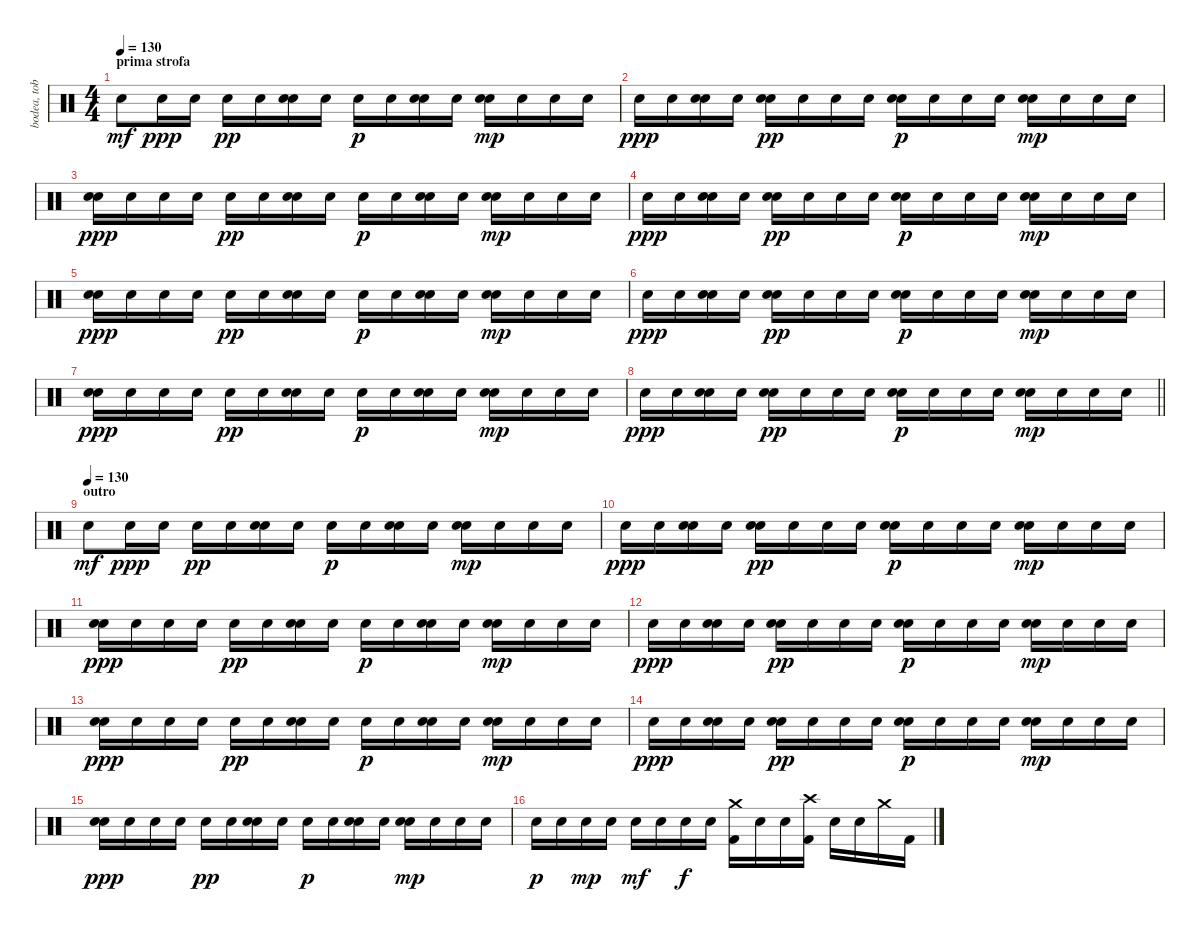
\track ("bodea, tobe" "bodea, tob") {instrument percussion}
\staff {score}
\articulation defaults
\ts (4 4)
\section ("" "prima strofa")
\tempo 130
\clef neutral
\ks c "Electric Snare (hit)".8{dy mf} "Electric Snare (hit)".16{dy ppp} "Electric Snare (hit)".16 "Electric Snare (hit)".16{dy pp} "Electric Snare (hit)".16
("Electric Snare (hit)" "Electric Snare (hit)").16 "Electric Snare (hit)".16 "Electric Snare (hit)".16{dy p} "Electric Snare (hit)".16 ("Electric Snare (hit)" "Electric Snare (hit)").16 "Electric Snare (hit)".16 ("Electric Snare (hit)" "Electric Snare (hit)").16{dy mp} "Electric Snare (hit)".16 "Electric Snare (hit)".16 "Electric Snare (hit)".16 |
"Electric Snare (hit)".16{dy ppp} "Electric Snare (hit)".16 ("Electric Snare (hit)" "Electric Snare (hit)").16 "Electric Snare (hit)".16 ("Electric Snare (hit)" "Electric Snare (hit)").16{dy pp} "Electric Snare (hit)".16 "Electric Snare (hit)".16 "Electric Snare (hit)".16 ("Electric Snare (hit)" "Electric Snare (hit)").16{dy p} "Electric Snare (hit)".16 "Electric Snare (hit)".16 "Snare (hit)".16 ("Electric Snare (hit)" "Electric Snare (hit)").16{dy mp} "Electric Snare (hit)".16 "Electric Snare (hit)".16 "Electric Snare (hit)".16 |
("Electric Snare (hit)" "Electric Snare (hit)").16{dy ppp} "Electric Snare (hit)".16 "Electric Snare (hit)".16 "Electric Snare (hit)".16 "Electric Snare (hit)".16{dy pp} "Electric Snare (hit)".16 ("Electric Snare (hit)" "Electric Snare (hit)").16 "Electric Snare (hit)".16 "Electric Snare (hit)".16{dy p} "Electric Snare (hit)".16 ("Electric Snare (hit)" "Electric Snare (hit)").16 "Electric Snare (hit)".16 ("Electric Snare (hit)" "Electric Snare (hit)").16{dy mp} "Electric Snare (hit)".16 "Electric Snare (hit)".16 "Electric Snare (hit)".16 |
"Electric Snare (hit)".16{dy ppp} "Electric Snare (hit)".16 ("Electric Snare (hit)" "Electric Snare (hit)").16 "Electric Snare (hit)".16 ("Electric Snare (hit)" "Electric Snare (hit)").16{dy pp} "Electric Snare (hit)".16 "Electric Snare (hit)".16 "Electric Snare (hit)".16 ("Electric Snare (hit)" "Electric Snare (hit)").16{dy p} "Electric Snare (hit)".16 "Electric Snare (hit)".16 "Snare (hit)".16 ("Electric Snare (hit)" "Electric Snare (hit)").16{dy mp} "Electric Snare (hit)".16 "Electric Snare (hit)".16 "Electric Snare (hit)".16 |
("Electric Snare (hit)" "Electric Snare (hit)").16{dy ppp} "Electric Snare (hit)".16 "Electric Snare (hit)".16 "Electric Snare (hit)".16 "Electric Snare (hit)".16{dy pp} "Electric Snare (hit)".16 ("Electric Snare (hit)" "Electric Snare (hit)").16 "Electric Snare (hit)".16 "Electric Snare (hit)".16{dy p} "Electric Snare (hit)".16 ("Electric Snare (hit)" "Electric Snare (hit)").16 "Electric Snare (hit)".16 ("Electric Snare (hit)" "Electric Snare (hit)").16{dy mp} "Electric Snare (hit)".16 "Electric Snare (hit)".16 "Electric Snare (hit)".16 |
"Electric Snare (hit)".16{dy ppp} "Electric Snare (hit)".16 ("Electric Snare (hit)" "Electric Snare (hit)").16 "Electric Snare (hit)".16 ("Electric Snare (hit)" "Electric Snare (hit)").16{dy pp} "Electric Snare (hit)".16 "Electric Snare (hit)".16 "Electric Snare (hit)".16 ("Electric Snare (hit)" "Electric Snare (hit)").16{dy p} "Electric Snare (hit)".16 "Electric Snare (hit)".16 "Snare (hit)".16 ("Electric Snare (hit)" "Electric Snare (hit)").16{dy mp} "Electric Snare (hit)".16 "Electric Snare (hit)".16 "Electric Snare (hit)".16 |
("Electric Snare (hit)" "Electric Snare (hit)").16{dy ppp} "Electric Snare (hit)".16 "Electric Snare (hit)".16 "Electric Snare (hit)".16 "Electric Snare (hit)".16{dy pp} "Electric Snare (hit)".16 ("Electric Snare (hit)" "Electric Snare (hit)").16 "Electric Snare (hit)".16 "Electric Snare (hit)".16{dy p} "Electric Snare (hit)".16 ("Electric Snare (hit)" "Electric Snare (hit)").16 "Electric Snare (hit)".16 ("Electric Snare (hit)" "Electric Snare (hit)").16{dy mp} "Electric Snare (hit)".16 "Electric Snare (hit)".16 "Electric Snare (hit)".16 |
\barLineRight lightlight "Electric Snare (hit)".16{dy ppp} "Electric Snare (hit)".16
("Electric Snare (hit)" "Electric Snare (hit)").16 "Electric Snare (hit)".16 ("Electric Snare (hit)" "Electric Snare (hit)").16{dy pp} "Electric Snare (hit)".16 "Electric Snare (hit)".16 "Electric Snare (hit)".16 ("Electric Snare (hit)" "Electric Snare (hit)").16{dy p} "Electric Snare (hit)".16 "Electric Snare (hit)".16 "Snare (hit)".16 ("Electric Snare (hit)" "Electric Snare (hit)").16{dy mp} "Electric Snare (hit)".16 "Electric Snare (hit)".16 "Electric Snare (hit)".16 |
\section ("" "outro")
\tempo (130)
"Electric Snare (hit)".8{dy mf} "Electric Snare (hit)".16{dy ppp} "Electric Snare (hit)".16 "Electric Snare (hit)".16{dy pp} "Electric Snare (hit)".16 ("Electric Snare (hit)" "Electric Snare (hit)").16 "Electric Snare (hit)".16 "Electric Snare (hit)".16{dy p} "Electric Snare (hit)".16 ("Electric Snare (hit)" "Electric Snare (hit)").16 "Electric Snare (hit)".16 ("Electric Snare (hit)" "Electric Snare (hit)").16{dy mp} "Electric Snare (hit)".16 "Electric Snare (hit)".16 "Electric Snare (hit)".16 |
"Electric Snare (hit)".16{dy ppp} "Electric Snare (hit)".16 ("Electric Snare (hit)" "Electric Snare (hit)").16 "Electric Snare (hit)".16 ("Electric Snare (hit)" "Electric Snare (hit)").16{dy pp} "Electric Snare (hit)".16 "Electric Snare (hit)".16 "Electric Snare (hit)".16 ("Electric Snare (hit)" "Electric Snare (hit)").16{dy p} "Electric Snare (hit)".16 "Electric Snare (hit)".16 "Snare (hit)".16 ("Electric Snare (hit)" "Electric Snare (hit)").16{dy mp} "Electric Snare (hit)".16 "Electric Snare (hit)".16 "Electric Snare (hit)".16 |
("Electric Snare (hit)" "Electric Snare (hit)").16{dy ppp} "Electric Snare (hit)".16 "Electric Snare (hit)".16 "Electric Snare (hit)".16 "Electric Snare (hit)".16{dy pp} "Electric Snare (hit)".16 ("Electric Snare (hit)" "Electric Snare (hit)").16 "Electric Snare (hit)".16 "Electric Snare (hit)".16{dy p} "Electric Snare (hit)".16 ("Electric Snare (hit)" "Electric Snare (hit)").16 "Electric Snare (hit)".16 ("Electric Snare (hit)" "Electric Snare (hit)").16{dy mp} "Electric Snare (hit)".16 "Electric Snare (hit)".16 "Electric Snare (hit)".16 |
"Electric Snare (hit)".16{dy ppp} "Electric Snare (hit)".16 ("Electric Snare (hit)" "Electric Snare (hit)").16 "Electric Snare (hit)".16 ("Electric Snare (hit)" "Electric Snare (hit)").16{dy pp} "Electric Snare (hit)".16 "Electric Snare (hit)".16 "Electric Snare (hit)".16 ("Electric Snare (hit)" "Electric Snare (hit)").16{dy p} "Electric Snare (hit)".16 "Electric Snare (hit)".16 "Snare (hit)".16 ("Electric Snare (hit)" "Electric Snare (hit)").16{dy mp} "Electric Snare (hit)".16 "Electric Snare (hit)".16 "Electric Snare (hit)".16 |
("Electric Snare (hit)" "Electric Snare (hit)").16{dy ppp} "Electric Snare (hit)".16 "Electric Snare (hit)".16 "Electric Snare (hit)".16 "Electric Snare (hit)".16{dy pp} "Electric Snare (hit)".16 ("Electric Snare (hit)" "Electric Snare (hit)").16 "Electric Snare (hit)".16 "Electric Snare (hit)".16{dy p} "Electric Snare (hit)".16 ("Electric Snare (hit)" "Electric Snare (hit)").16 "Electric Snare (hit)".16 ("Electric Snare (hit)" "Electric Snare (hit)").16{dy mp} "Electric Snare (hit)".16 "Electric Snare (hit)".16 "Electric Snare (hit)".16 |
"Electric Snare (hit)".16{dy ppp} "Electric Snare (hit)".16 ("Electric Snare (hit)" "Electric Snare (hit)").16 "Electric Snare (hit)".16 ("Electric Snare (hit)" "Electric Snare (hit)").16{dy pp} "Electric Snare (hit)".16 "Electric Snare (hit)".16 "Electric Snare (hit)".16 ("Electric Snare (hit)" "Electric Snare (hit)").16{dy p} "Electric Snare (hit)".16 "Electric Snare (hit)".16 "Snare (hit)".16 ("Electric Snare (hit)" "Electric Snare (hit)").16{dy mp} "Electric Snare (hit)".16 "Electric Snare (hit)".16 "Electric Snare (hit)".16 |
("Electric Snare (hit)" "Electric Snare (hit)").16{dy ppp} "Electric Snare (hit)".16 "Electric Snare (hit)".16 "Electric Snare (hit)".16 "Electric Snare (hit)".16{dy pp} "Electric Snare (hit)".16 ("Electric Snare (hit)" "Electric Snare (hit)").16 "Electric Snare (hit)".16 "Electric Snare (hit)".16{dy p} "Electric Snare (hit)".16 ("Electric Snare (hit)" "Electric Snare (hit)").16 "Electric Snare (hit)".16 ("Electric Snare (hit)" "Electric Snare (hit)").16{dy mp} "Electric Snare (hit)".16 "Electric Snare (hit)".16 "Electric Snare (hit)".16 |
"Electric Snare (hit)".16{dy p} "Electric Snare (hit)".16 "Electric Snare (hit)".16{dy mp} "Electric Snare (hit)".16 "Electric Snare (hit)".16{dy mf} "Electric Snare (hit)".16 "Electric Snare (hit)".16{dy f} "Electric Snare (hit)".16 ("Crash medium (hit)" "Kick (hit) 2").16 "Electric Snare (hit)".16 "Electric Snare (hit)".16 ("Crash high (hit)" "Kick (hit) 2").16 "Electric Snare (hit)".16 "Electric Snare (hit)".16 "Crash medium (hit)".16 "Kick (hit) 2".16
